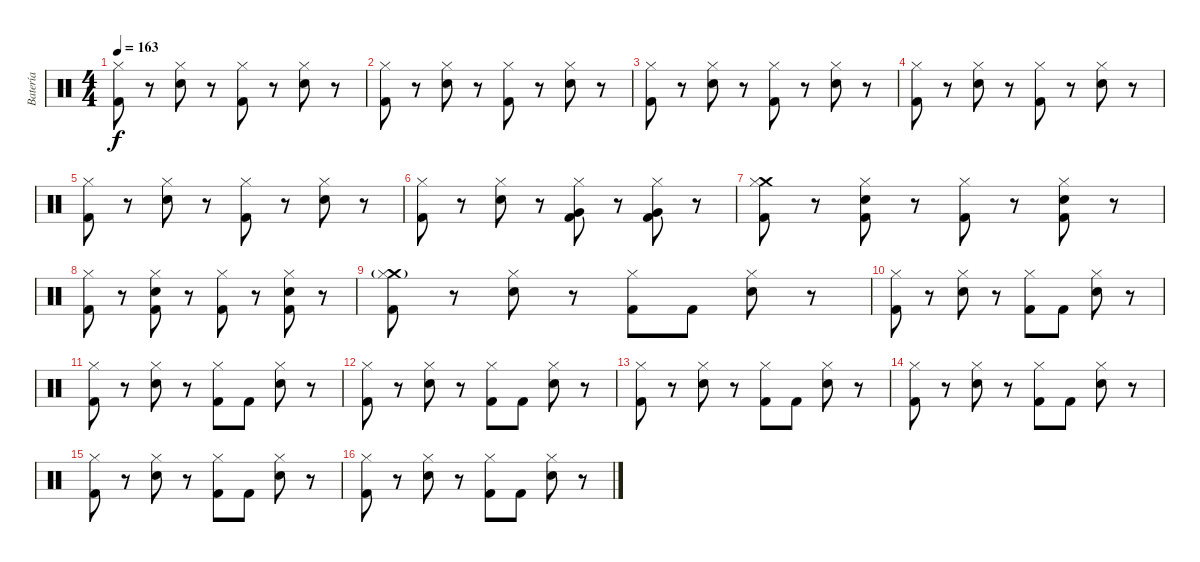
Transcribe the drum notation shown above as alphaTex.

\track ("Batería" "Batería") {instrument percussion}
\staff {score}
\articulation defaults
\ts (4 4)
\tempo 163
\clef neutral
\ks c
("Hi-Hat (closed)" "Kick (hit) 2").8{dy f} r.8 ("Hi-Hat (closed)" "Snare (hit) 2").8 r.8 ("Hi-Hat (closed)" "Kick (hit) 2").8 r.8 ("Hi-Hat (closed)" "Snare (hit) 2").8 r.8 |
("Hi-Hat (closed)" "Kick (hit) 2").8 r.8 ("Hi-Hat (closed)" "Snare (hit) 2").8 r.8 ("Hi-Hat (closed)" "Kick (hit) 2").8 r.8 ("Hi-Hat (closed)" "Snare (hit) 2").8 r.8 |
("Hi-Hat (closed)" "Kick (hit) 2").8 r.8 ("Hi-Hat (closed)" "Snare (hit) 2").8 r.8 ("Hi-Hat (closed)" "Kick (hit) 2").8 r.8 ("Hi-Hat (closed)" "Snare (hit) 2").8 r.8 |
("Hi-Hat (closed)" "Kick (hit) 2").8 r.8 ("Hi-Hat (closed)" "Snare (hit) 2").8 r.8 ("Hi-Hat (closed)" "Kick (hit) 2").8 r.8 ("Hi-Hat (closed)" "Snare (hit) 2").8 r.8 |
("Hi-Hat (closed)" "Kick (hit) 2").8 r.8 ("Hi-Hat (closed)" "Snare (hit) 2").8 r.8 ("Hi-Hat (closed)" "Kick (hit) 2").8 r.8 ("Hi-Hat (closed)" "Snare (hit) 2").8 r.8 |
("Hi-Hat (closed)" "Kick (hit) 2").8 r.8 ("Hi-Hat (closed)" "Snare (hit) 2").8 r.8 ("Hi-Hat (closed)" "Very Low Tom (hit)" "Kick (hit) 2").8 r.8 ("Hi-Hat (closed)" "Very Low Tom (hit)" "Kick (hit) 2").8 r.8 |
("Crash medium (hit)" "Hi-Hat (closed)" "Kick (hit) 2").8 r.8 ("Hi-Hat (closed)" "Snare (hit) 2" "Kick (hit) 2").8 r.8 ("Hi-Hat (closed)" "Kick (hit) 2").8 r.8 ("Hi-Hat (closed)" "Snare (hit) 2" "Kick (hit) 2").8 r.8 |
("Hi-Hat (closed)" "Kick (hit) 2").8 r.8 ("Hi-Hat (closed)" "Snare (hit) 2" "Kick (hit) 2").8 r.8 ("Hi-Hat (closed)" "Kick (hit) 2").8 r.8 ("Hi-Hat (closed)" "Snare (hit) 2" "Kick (hit) 2").8 r.8 |
("Crash medium (hit)"{g} "Hi-Hat (closed)" "Kick (hit) 2").8 r.8 ("Hi-Hat (closed)" "Snare (hit) 2").8 r.8 ("Hi-Hat (closed)" "Kick (hit) 2").8 "Kick (hit) 2".8 ("Hi-Hat (closed)" "Snare (hit) 2").8 r.8 |
("Hi-Hat (closed)" "Kick (hit) 2").8 r.8 ("Hi-Hat (closed)" "Snare (hit) 2").8 r.8 ("Hi-Hat (closed)" "Kick (hit) 2").8 "Kick (hit) 2".8 ("Hi-Hat (closed)" "Snare (hit) 2").8 r.8 |
("Hi-Hat (closed)" "Kick (hit) 2").8 r.8 ("Hi-Hat (closed)" "Snare (hit) 2").8 r.8 ("Hi-Hat (closed)" "Kick (hit) 2").8 "Kick (hit) 2".8 ("Hi-Hat (closed)" "Snare (hit) 2").8 r.8 |
("Hi-Hat (closed)" "Kick (hit) 2").8 r.8 ("Hi-Hat (closed)" "Snare (hit) 2").8 r.8 ("Hi-Hat (closed)" "Kick (hit) 2").8 "Kick (hit) 2".8 ("Hi-Hat (closed)" "Snare (hit) 2").8 r.8 |
("Hi-Hat (closed)" "Kick (hit) 2").8 r.8 ("Hi-Hat (closed)" "Snare (hit) 2").8 r.8 ("Hi-Hat (closed)" "Kick (hit) 2").8 "Kick (hit) 2".8 ("Hi-Hat (closed)" "Snare (hit) 2").8 r.8 |
("Hi-Hat (closed)" "Kick (hit) 2").8 r.8 ("Hi-Hat (closed)" "Snare (hit) 2").8 r.8 ("Hi-Hat (closed)" "Kick (hit) 2").8 "Kick (hit) 2".8 ("Hi-Hat (closed)" "Snare (hit) 2").8 r.8 |
("Hi-Hat (closed)" "Kick (hit) 2").8 r.8 ("Hi-Hat (closed)" "Snare (hit) 2").8 r.8 ("Hi-Hat (closed)" "Kick (hit) 2").8 "Kick (hit) 2".8 ("Hi-Hat (closed)" "Snare (hit) 2").8 r.8 |
("Hi-Hat (closed)" "Kick (hit) 2").8 r.8 ("Hi-Hat (closed)" "Snare (hit) 2").8 r.8 ("Hi-Hat (closed)" "Kick (hit) 2").8 "Kick (hit) 2".8 ("Hi-Hat (closed)" "Snare (hit) 2").8 r.8
